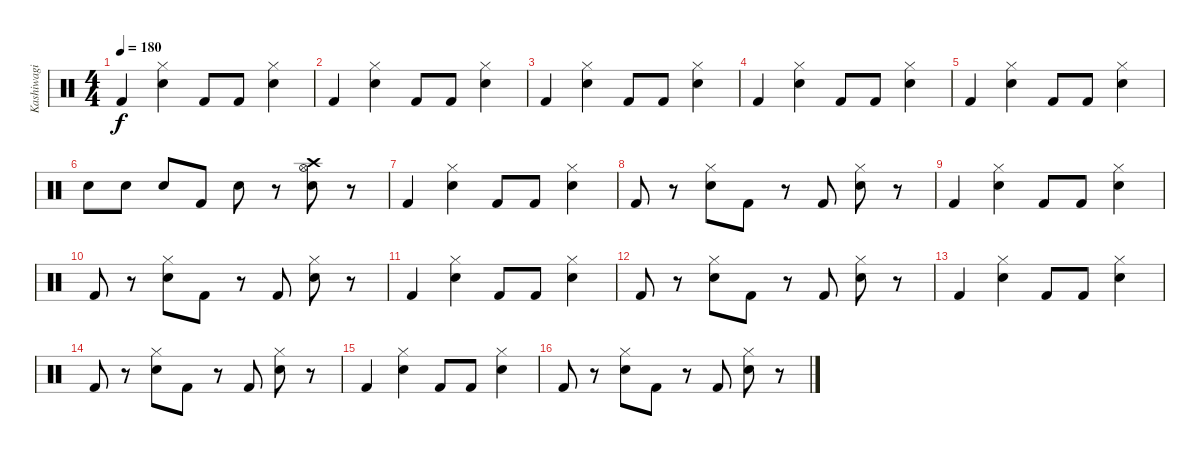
\track ("Kashiwagi Yuki" "Kashiwagi ") {instrument percussion}
\staff {score}
\articulation defaults
\ts (4 4)
\tempo 180
\clef neutral
\ks c "Kick (hit) 2".4{dy f}
("Hi-Hat (closed)" "Electric Snare (hit)").4 "Kick (hit) 2".8 "Kick (hit) 2".8 ("Hi-Hat (closed)" "Electric Snare (hit)").4 |
"Kick (hit) 2".4 ("Hi-Hat (closed)" "Electric Snare (hit)").4 "Kick (hit) 2".8 "Kick (hit) 2".8 ("Hi-Hat (closed)" "Electric Snare (hit)").4 |
"Kick (hit) 2".4 ("Hi-Hat (closed)" "Electric Snare (hit)").4 "Kick (hit) 2".8 "Kick (hit) 2".8 ("Hi-Hat (closed)" "Electric Snare (hit)").4 |
"Kick (hit) 2".4 ("Hi-Hat (closed)" "Electric Snare (hit)").4 "Kick (hit) 2".8 "Kick (hit) 2".8 ("Hi-Hat (closed)" "Electric Snare (hit)").4 |
"Kick (hit) 2".4 ("Hi-Hat (closed)" "Electric Snare (hit)").4 "Kick (hit) 2".8 "Kick (hit) 2".8 ("Hi-Hat (closed)" "Electric Snare (hit)").4 |
"Electric Snare (hit)".8 "Electric Snare (hit)".8 "Electric Snare (hit)".8 "Kick (hit) 2".8 "Electric Snare (hit)".8 r.8 ("Crash high (hit)" "Hi-Hat (open)" "Electric Snare (hit)").8 r.8 |
"Kick (hit) 2".4 ("Hi-Hat (closed)" "Electric Snare (hit)").4 "Kick (hit) 2".8 "Kick (hit) 2".8 ("Hi-Hat (closed)" "Electric Snare (hit)").4 |
"Kick (hit) 2".8 r.8 ("Hi-Hat (closed)" "Electric Snare (hit)").8 "Kick (hit) 2".8 r.8 "Kick (hit) 2".8 ("Hi-Hat (closed)" "Electric Snare (hit)").8 r.8 |
"Kick (hit) 2".4 ("Hi-Hat (closed)" "Electric Snare (hit)").4 "Kick (hit) 2".8 "Kick (hit) 2".8 ("Hi-Hat (closed)" "Electric Snare (hit)").4 |
"Kick (hit) 2".8 r.8 ("Hi-Hat (closed)" "Electric Snare (hit)").8 "Kick (hit) 2".8 r.8 "Kick (hit) 2".8 ("Hi-Hat (closed)" "Electric Snare (hit)").8 r.8 |
"Kick (hit) 2".4 ("Hi-Hat (closed)" "Electric Snare (hit)").4 "Kick (hit) 2".8 "Kick (hit) 2".8 ("Hi-Hat (closed)" "Electric Snare (hit)").4 |
"Kick (hit) 2".8 r.8 ("Hi-Hat (closed)" "Electric Snare (hit)").8 "Kick (hit) 2".8 r.8 "Kick (hit) 2".8 ("Hi-Hat (closed)" "Electric Snare (hit)").8 r.8 |
"Kick (hit) 2".4 ("Hi-Hat (closed)" "Electric Snare (hit)").4 "Kick (hit) 2".8 "Kick (hit) 2".8 ("Hi-Hat (closed)" "Electric Snare (hit)").4 |
"Kick (hit) 2".8 r.8 ("Hi-Hat (closed)" "Electric Snare (hit)").8 "Kick (hit) 2".8 r.8 "Kick (hit) 2".8 ("Hi-Hat (closed)" "Electric Snare (hit)").8 r.8 |
"Kick (hit) 2".4 ("Hi-Hat (closed)" "Electric Snare (hit)").4 "Kick (hit) 2".8 "Kick (hit) 2".8 ("Hi-Hat (closed)" "Electric Snare (hit)").4 |
"Kick (hit) 2".8 r.8 ("Hi-Hat (closed)" "Electric Snare (hit)").8 "Kick (hit) 2".8 r.8 "Kick (hit) 2".8 ("Hi-Hat (closed)" "Electric Snare (hit)").8 r.8
